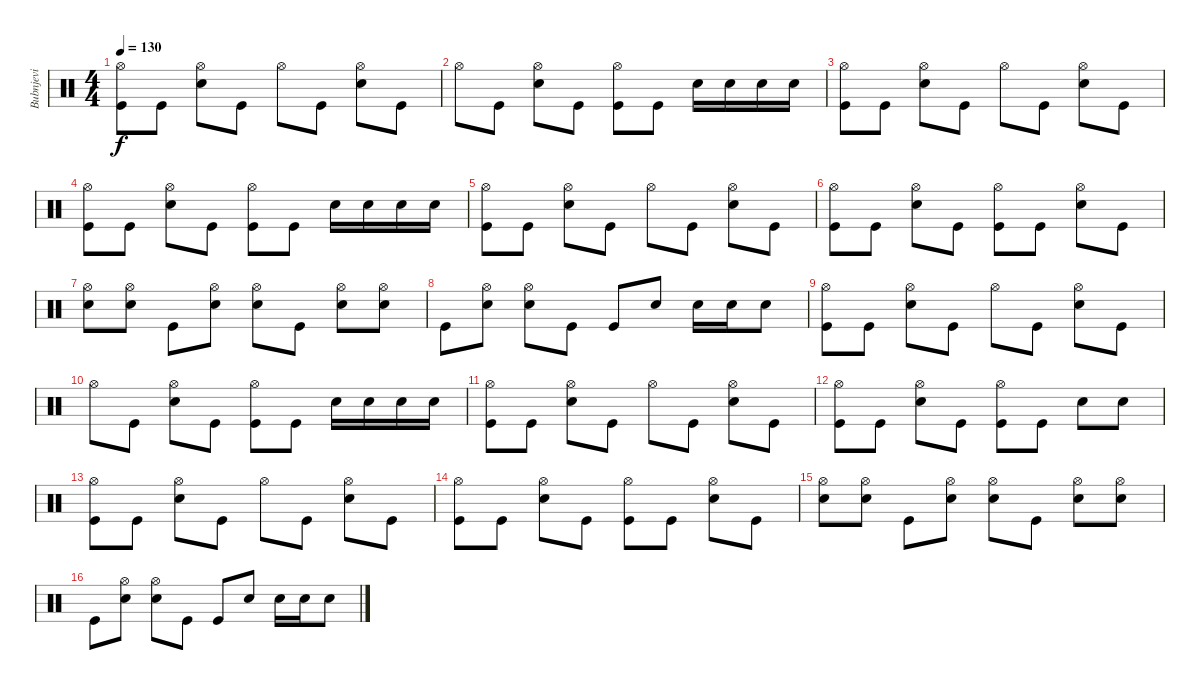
\track ("Bubnjevi" "Bubnjevi") {instrument percussion}
\staff {score}
\articulation defaults
\ts (4 4)
\tempo 130
\clef neutral
\ks c
("Hi-Hat (open)" "Kick (hit)").8{dy f} "Kick (hit)".8 ("Hi-Hat (open)" "Snare (hit) 2").8 "Kick (hit)".8 "Hi-Hat (open)".8 "Kick (hit)".8 ("Hi-Hat (open)" "Snare (hit) 2").8 "Kick (hit)".8 |
"Hi-Hat (open)".8 "Kick (hit)".8 ("Hi-Hat (open)" "Snare (hit) 2").8 "Kick (hit)".8 ("Hi-Hat (open)" "Kick (hit)").8 "Kick (hit)".8 "Snare (hit) 2".16 "Snare (hit) 2".16 "Snare (hit) 2".16 "Snare (hit) 2".16 |
("Hi-Hat (open)" "Kick (hit)").8 "Kick (hit)".8 ("Hi-Hat (open)" "Snare (hit) 2").8 "Kick (hit)".8 "Hi-Hat (open)".8 "Kick (hit)".8 ("Hi-Hat (open)" "Snare (hit) 2").8 "Kick (hit)".8 |
("Hi-Hat (open)" "Kick (hit)").8 "Kick (hit)".8 ("Hi-Hat (open)" "Snare (hit) 2").8 "Kick (hit)".8 ("Hi-Hat (open)" "Kick (hit)").8 "Kick (hit)".8 "Snare (hit) 2".16 "Snare (hit) 2".16 "Snare (hit) 2".16 "Snare (hit) 2".16 |
("Hi-Hat (open)" "Kick (hit)").8 "Kick (hit)".8 ("Hi-Hat (open)" "Snare (hit) 2").8 "Kick (hit)".8 "Hi-Hat (open)".8 "Kick (hit)".8 ("Hi-Hat (open)" "Snare (hit) 2").8 "Kick (hit)".8 |
("Hi-Hat (open)" "Kick (hit)").8 "Kick (hit)".8 ("Hi-Hat (open)" "Snare (hit) 2").8 "Kick (hit)".8 ("Hi-Hat (open)" "Kick (hit)").8 "Kick (hit)".8 ("Hi-Hat (open)" "Snare (hit) 2").8 "Kick (hit)".8 |
("Hi-Hat (open)" "Snare (hit) 2").8 ("Hi-Hat (open)" "Snare (hit) 2").8 "Kick (hit)".8 ("Hi-Hat (open)" "Snare (hit) 2").8 ("Hi-Hat (open)" "Snare (hit) 2").8 "Kick (hit)".8 ("Hi-Hat (open)" "Snare (hit) 2").8 ("Hi-Hat (open)" "Snare (hit) 2").8 |
"Kick (hit)".8 ("Hi-Hat (open)" "Snare (hit) 2").8 ("Hi-Hat (open)" "Snare (hit) 2").8 "Kick (hit)".8 "Kick (hit)".8 "Snare (hit) 2".8 "Snare (hit) 2".16 "Snare (hit) 2".16 "Snare (hit) 2".8 |
("Hi-Hat (open)" "Kick (hit)").8 "Kick (hit)".8 ("Hi-Hat (open)" "Snare (hit) 2").8 "Kick (hit)".8 "Hi-Hat (open)".8 "Kick (hit)".8 ("Hi-Hat (open)" "Snare (hit) 2").8 "Kick (hit)".8 |
"Hi-Hat (open)".8 "Kick (hit)".8 ("Hi-Hat (open)" "Snare (hit) 2").8 "Kick (hit)".8 ("Hi-Hat (open)" "Kick (hit)").8 "Kick (hit)".8 "Snare (hit) 2".16 "Snare (hit) 2".16 "Snare (hit) 2".16 "Snare (hit) 2".16 |
("Hi-Hat (open)" "Kick (hit)").8 "Kick (hit)".8 ("Hi-Hat (open)" "Snare (hit) 2").8 "Kick (hit)".8 "Hi-Hat (open)".8 "Kick (hit)".8 ("Hi-Hat (open)" "Snare (hit) 2").8 "Kick (hit)".8 |
("Hi-Hat (open)" "Kick (hit)").8 "Kick (hit)".8 ("Hi-Hat (open)" "Snare (hit) 2").8 "Kick (hit)".8 ("Hi-Hat (open)" "Kick (hit)").8 "Kick (hit)".8 "Snare (hit) 2".8 "Snare (hit) 2".8 |
("Hi-Hat (open)" "Kick (hit)").8 "Kick (hit)".8 ("Hi-Hat (open)" "Snare (hit) 2").8 "Kick (hit)".8 "Hi-Hat (open)".8 "Kick (hit)".8 ("Hi-Hat (open)" "Snare (hit) 2").8 "Kick (hit)".8 |
("Hi-Hat (open)" "Kick (hit)").8 "Kick (hit)".8 ("Hi-Hat (open)" "Snare (hit) 2").8 "Kick (hit)".8 ("Hi-Hat (open)" "Kick (hit)").8 "Kick (hit)".8 ("Hi-Hat (open)" "Snare (hit) 2").8 "Kick (hit)".8 |
("Hi-Hat (open)" "Snare (hit) 2").8 ("Hi-Hat (open)" "Snare (hit) 2").8 "Kick (hit)".8 ("Hi-Hat (open)" "Snare (hit) 2").8 ("Hi-Hat (open)" "Snare (hit) 2").8 "Kick (hit)".8 ("Hi-Hat (open)" "Snare (hit) 2").8 ("Hi-Hat (open)" "Snare (hit) 2").8 |
"Kick (hit)".8 ("Hi-Hat (open)" "Snare (hit) 2").8 ("Hi-Hat (open)" "Snare (hit) 2").8 "Kick (hit)".8 "Kick (hit)".8 "Snare (hit) 2".8 "Snare (hit) 2".16 "Snare (hit) 2".16 "Snare (hit) 2".8
